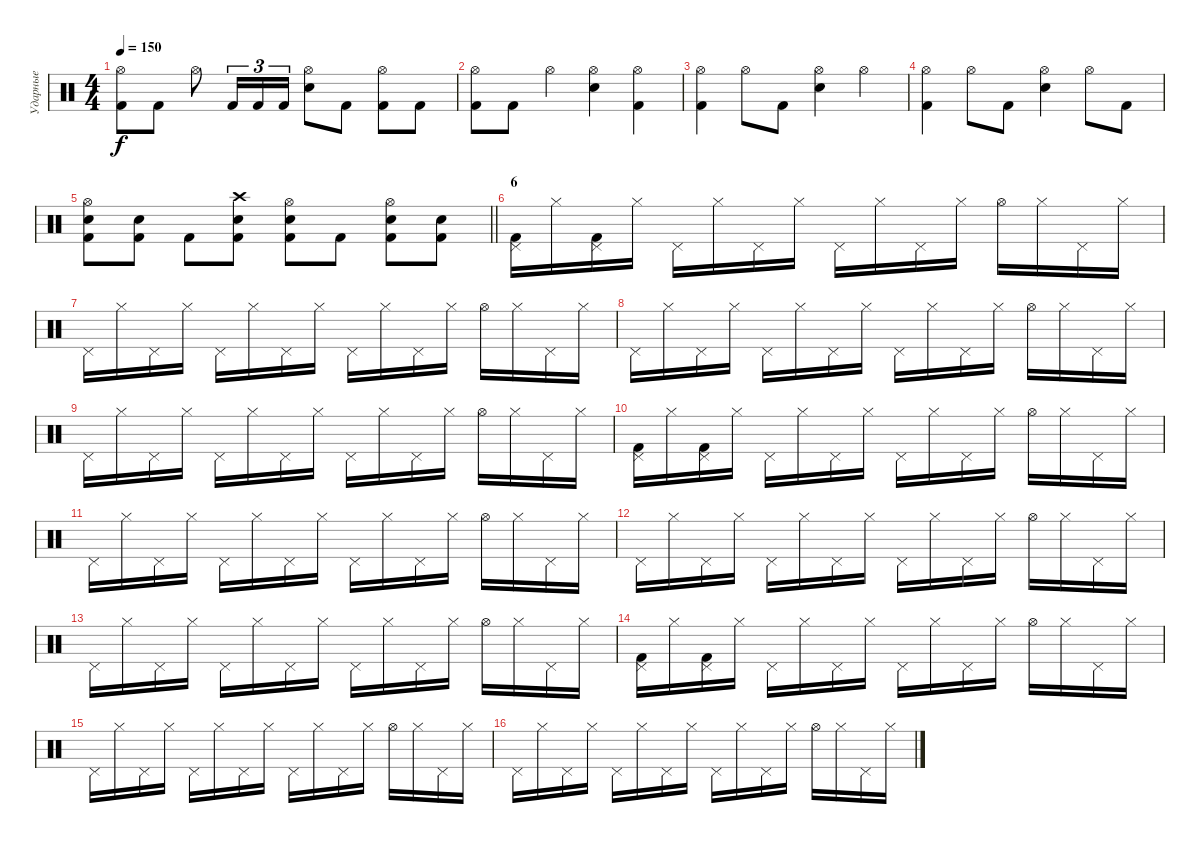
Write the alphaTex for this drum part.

\track ("Ударные" "Ударные") {mute instrument percussion}
\staff {score}
\articulation defaults
\ts (4 4)
\tempo 150
\clef neutral
\ks c
("Hi-Hat (open)" "Kick (hit) 2").8{dy f} "Kick (hit) 2".8 "Hi-Hat (open)".8 "Kick (hit) 2".16{tu (3 2)} "Kick (hit) 2".16{tu (3 2)} "Kick (hit) 2".16{tu (3 2)} ("Hi-Hat (open)" "Snare (hit) 2").8 "Kick (hit) 2".8 ("Hi-Hat (open)" "Kick (hit) 2").8 "Kick (hit) 2".8 |
("Hi-Hat (open)" "Kick (hit) 2").8 "Kick (hit) 2".8 "Hi-Hat (open)".4 ("Hi-Hat (open)" "Snare (hit) 2").4 ("Hi-Hat (open)" "Kick (hit) 2").4 |
("Hi-Hat (open)" "Kick (hit) 2").4 "Hi-Hat (open)".8 "Kick (hit) 2".8 ("Hi-Hat (open)" "Snare (hit) 2").4 "Hi-Hat (open)".4 |
("Hi-Hat (open)" "Kick (hit) 2").4 "Hi-Hat (open)".8 "Kick (hit) 2".8 ("Hi-Hat (open)" "Snare (hit) 2").4 "Hi-Hat (open)".8 "Kick (hit) 2".8 |
\barLineRight lightlight
("Hi-Hat (open)" "Snare (hit) 2" "Kick (hit) 2").8 ("Snare (hit) 2" "Kick (hit) 2").8 "Kick (hit) 2".8 ("Crash high (hit)" "Snare (hit) 2" "Kick (hit) 2").8 ("Hi-Hat (open)" "Snare (hit) 2" "Kick (hit) 2").8 "Kick (hit) 2".8 ("Hi-Hat (open)" "Snare (hit) 2" "Kick (hit) 2").8 ("Snare (hit) 2" "Kick (hit) 2").8 |
\section ("" "6")
("Pedal Hi-Hat (hit)" "Kick (hit) 2").16 "Hi-Hat (closed)".16 ("Pedal Hi-Hat (hit)" "Kick (hit) 2").16 "Hi-Hat (closed)".16 "Pedal Hi-Hat (hit)".16 "Hi-Hat (closed)".16 "Pedal Hi-Hat (hit)".16 "Hi-Hat (closed)".16 "Pedal Hi-Hat (hit)".16 "Hi-Hat (closed)".16 "Pedal Hi-Hat (hit)".16 "Hi-Hat (closed)".16 "Hi-Hat (open)".16 "Hi-Hat (closed)".16 "Pedal Hi-Hat (hit)".16 "Hi-Hat (closed)".16 |
"Pedal Hi-Hat (hit)".16 "Hi-Hat (closed)".16 "Pedal Hi-Hat (hit)".16 "Hi-Hat (closed)".16 "Pedal Hi-Hat (hit)".16 "Hi-Hat (closed)".16 "Pedal Hi-Hat (hit)".16 "Hi-Hat (closed)".16 "Pedal Hi-Hat (hit)".16 "Hi-Hat (closed)".16 "Pedal Hi-Hat (hit)".16 "Hi-Hat (closed)".16 "Hi-Hat (open)".16 "Hi-Hat (closed)".16 "Pedal Hi-Hat (hit)".16 "Hi-Hat (closed)".16 |
"Pedal Hi-Hat (hit)".16 "Hi-Hat (closed)".16 "Pedal Hi-Hat (hit)".16 "Hi-Hat (closed)".16 "Pedal Hi-Hat (hit)".16 "Hi-Hat (closed)".16 "Pedal Hi-Hat (hit)".16 "Hi-Hat (closed)".16 "Pedal Hi-Hat (hit)".16 "Hi-Hat (closed)".16 "Pedal Hi-Hat (hit)".16 "Hi-Hat (closed)".16 "Hi-Hat (open)".16 "Hi-Hat (closed)".16 "Pedal Hi-Hat (hit)".16 "Hi-Hat (closed)".16 |
"Pedal Hi-Hat (hit)".16 "Hi-Hat (closed)".16 "Pedal Hi-Hat (hit)".16 "Hi-Hat (closed)".16 "Pedal Hi-Hat (hit)".16 "Hi-Hat (closed)".16 "Pedal Hi-Hat (hit)".16 "Hi-Hat (closed)".16 "Pedal Hi-Hat (hit)".16 "Hi-Hat (closed)".16 "Pedal Hi-Hat (hit)".16 "Hi-Hat (closed)".16 "Hi-Hat (open)".16 "Hi-Hat (closed)".16 "Pedal Hi-Hat (hit)".16 "Hi-Hat (closed)".16 |
("Pedal Hi-Hat (hit)" "Kick (hit) 2").16 "Hi-Hat (closed)".16 ("Pedal Hi-Hat (hit)" "Kick (hit) 2").16 "Hi-Hat (closed)".16 "Pedal Hi-Hat (hit)".16 "Hi-Hat (closed)".16 "Pedal Hi-Hat (hit)".16 "Hi-Hat (closed)".16 "Pedal Hi-Hat (hit)".16 "Hi-Hat (closed)".16 "Pedal Hi-Hat (hit)".16 "Hi-Hat (closed)".16 "Hi-Hat (open)".16 "Hi-Hat (closed)".16 "Pedal Hi-Hat (hit)".16 "Hi-Hat (closed)".16 |
"Pedal Hi-Hat (hit)".16 "Hi-Hat (closed)".16 "Pedal Hi-Hat (hit)".16 "Hi-Hat (closed)".16 "Pedal Hi-Hat (hit)".16 "Hi-Hat (closed)".16 "Pedal Hi-Hat (hit)".16 "Hi-Hat (closed)".16 "Pedal Hi-Hat (hit)".16 "Hi-Hat (closed)".16 "Pedal Hi-Hat (hit)".16 "Hi-Hat (closed)".16 "Hi-Hat (open)".16 "Hi-Hat (closed)".16 "Pedal Hi-Hat (hit)".16 "Hi-Hat (closed)".16 |
"Pedal Hi-Hat (hit)".16 "Hi-Hat (closed)".16 "Pedal Hi-Hat (hit)".16 "Hi-Hat (closed)".16 "Pedal Hi-Hat (hit)".16 "Hi-Hat (closed)".16 "Pedal Hi-Hat (hit)".16 "Hi-Hat (closed)".16 "Pedal Hi-Hat (hit)".16 "Hi-Hat (closed)".16 "Pedal Hi-Hat (hit)".16 "Hi-Hat (closed)".16 "Hi-Hat (open)".16 "Hi-Hat (closed)".16 "Pedal Hi-Hat (hit)".16 "Hi-Hat (closed)".16 |
"Pedal Hi-Hat (hit)".16 "Hi-Hat (closed)".16 "Pedal Hi-Hat (hit)".16 "Hi-Hat (closed)".16 "Pedal Hi-Hat (hit)".16 "Hi-Hat (closed)".16 "Pedal Hi-Hat (hit)".16 "Hi-Hat (closed)".16 "Pedal Hi-Hat (hit)".16 "Hi-Hat (closed)".16 "Pedal Hi-Hat (hit)".16 "Hi-Hat (closed)".16 "Hi-Hat (open)".16 "Hi-Hat (closed)".16 "Pedal Hi-Hat (hit)".16 "Hi-Hat (closed)".16 |
("Pedal Hi-Hat (hit)" "Kick (hit) 2").16 "Hi-Hat (closed)".16 ("Pedal Hi-Hat (hit)" "Kick (hit) 2").16 "Hi-Hat (closed)".16 "Pedal Hi-Hat (hit)".16 "Hi-Hat (closed)".16 "Pedal Hi-Hat (hit)".16 "Hi-Hat (closed)".16 "Pedal Hi-Hat (hit)".16 "Hi-Hat (closed)".16 "Pedal Hi-Hat (hit)".16 "Hi-Hat (closed)".16 "Hi-Hat (open)".16 "Hi-Hat (closed)".16 "Pedal Hi-Hat (hit)".16 "Hi-Hat (closed)".16 |
"Pedal Hi-Hat (hit)".16 "Hi-Hat (closed)".16 "Pedal Hi-Hat (hit)".16 "Hi-Hat (closed)".16 "Pedal Hi-Hat (hit)".16 "Hi-Hat (closed)".16 "Pedal Hi-Hat (hit)".16 "Hi-Hat (closed)".16 "Pedal Hi-Hat (hit)".16 "Hi-Hat (closed)".16 "Pedal Hi-Hat (hit)".16 "Hi-Hat (closed)".16 "Hi-Hat (open)".16 "Hi-Hat (closed)".16 "Pedal Hi-Hat (hit)".16 "Hi-Hat (closed)".16 |
"Pedal Hi-Hat (hit)".16 "Hi-Hat (closed)".16 "Pedal Hi-Hat (hit)".16 "Hi-Hat (closed)".16 "Pedal Hi-Hat (hit)".16 "Hi-Hat (closed)".16 "Pedal Hi-Hat (hit)".16 "Hi-Hat (closed)".16 "Pedal Hi-Hat (hit)".16 "Hi-Hat (closed)".16 "Pedal Hi-Hat (hit)".16 "Hi-Hat (closed)".16 "Hi-Hat (open)".16 "Hi-Hat (closed)".16 "Pedal Hi-Hat (hit)".16 "Hi-Hat (closed)".16
